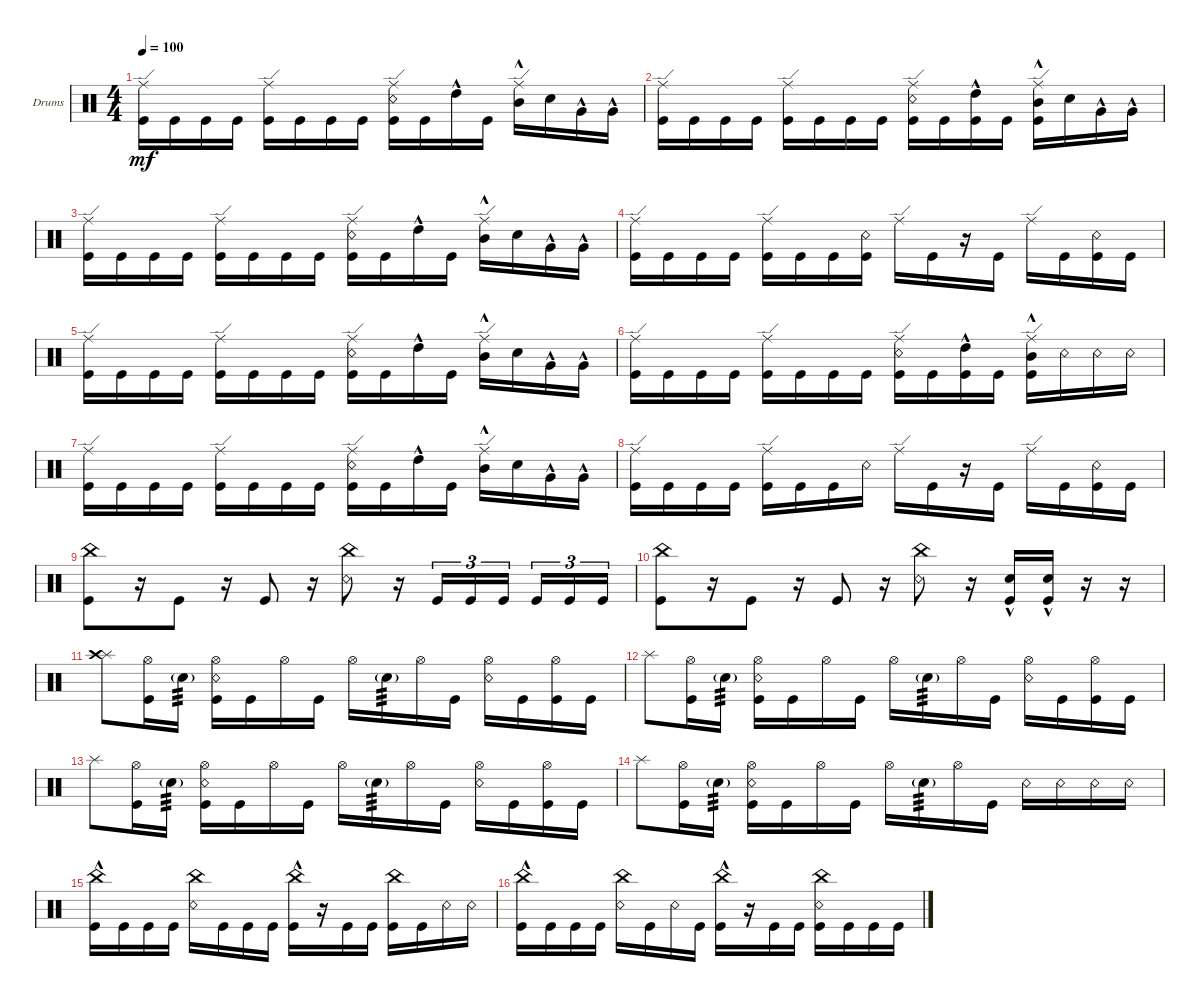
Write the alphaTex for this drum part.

\defaultSystemsLayout 4
\bracketExtendMode groupsimilarinstruments
\firstSystemTrackNameOrientation horizontal
\otherSystemsTrackNameOrientation horizontal
\track ("Drumkit" "Drums") {instrument percussion}
\staff {score}
\articulation defaults
\ts (4 4)
\tempo 100
\clef neutral
\ks c
("Ride (edge)" "Kick (hit)").16{dy mf} "Kick (hit)".16 "Kick (hit)".16 "Kick (hit)".16 ("Kick (hit)" "Ride (edge)").16 "Kick (hit)".16 "Kick (hit)".16 "Kick (hit)".16 ("Kick (hit)" "Ride (edge)" "Snare (rim shot)").16 "Kick (hit)".16 "High Tom (hit)"{hac}.16 "Kick (hit)".16 ("Ride (edge)" "Mid Tom (hit)"{hac}).16 "Snare (hit) 2".16 "Very Low Tom (hit)"{hac}.16 "Very Low Tom (hit)"{hac}.16 |
("Ride (edge)" "Kick (hit)").16 "Kick (hit)".16 "Kick (hit)".16 "Kick (hit)".16 ("Kick (hit)" "Ride (edge)").16 "Kick (hit)".16 "Kick (hit)".16 "Kick (hit)".16 ("Kick (hit)" "Ride (edge)" "Snare (rim shot)").16 "Kick (hit)".16 ("Kick (hit)" "High Tom (hit)"{hac}).16 "Kick (hit)".16 ("Kick (hit)" "Ride (edge)" "Mid Tom (hit)"{hac}).16 "Snare (hit) 2".16 "Very Low Tom (hit)"{hac}.16 "Very Low Tom (hit)"{hac}.16 |
("Ride (edge)" "Kick (hit)").16 "Kick (hit)".16 "Kick (hit)".16 "Kick (hit)".16 ("Kick (hit)" "Ride (edge)").16 "Kick (hit)".16 "Kick (hit)".16 "Kick (hit)".16 ("Kick (hit)" "Ride (edge)" "Snare (rim shot)").16 "Kick (hit)".16 "High Tom (hit)"{hac}.16 "Kick (hit)".16 ("Ride (edge)" "Mid Tom (hit)"{hac}).16 "Snare (hit) 2".16 "Very Low Tom (hit)"{hac}.16 "Very Low Tom (hit)"{hac}.16 |
("Ride (edge)" "Kick (hit)").16 "Kick (hit)".16 "Kick (hit)".16 "Kick (hit)".16 ("Kick (hit)" "Ride (edge)").16 "Kick (hit)".16 "Kick (hit)".16 ("Kick (hit)" "Snare (rim shot)").16 "Ride (edge)".16 "Kick (hit)".16 r.16 "Kick (hit)".16 "Ride (edge)".16 "Kick (hit)".16 ("Kick (hit)" "Snare (rim shot)").16 "Kick (hit)".16 |
("Ride (edge)" "Kick (hit)").16 "Kick (hit)".16 "Kick (hit)".16 "Kick (hit)".16 ("Kick (hit)" "Ride (edge)").16 "Kick (hit)".16 "Kick (hit)".16 "Kick (hit)".16 ("Kick (hit)" "Ride (edge)" "Snare (rim shot)").16 "Kick (hit)".16 "High Tom (hit)"{hac}.16 "Kick (hit)".16 ("Ride (edge)" "Mid Tom (hit)"{hac}).16 "Snare (hit) 2".16 "Very Low Tom (hit)"{hac}.16 "Very Low Tom (hit)"{hac}.16 |
("Ride (edge)" "Kick (hit)").16 "Kick (hit)".16 "Kick (hit)".16 "Kick (hit)".16 ("Kick (hit)" "Ride (edge)").16 "Kick (hit)".16 "Kick (hit)".16 "Kick (hit)".16 ("Kick (hit)" "Ride (edge)" "Snare (rim shot)").16 "Kick (hit)".16 ("Kick (hit)" "High Tom (hit)"{hac}).16 "Kick (hit)".16 ("Kick (hit)" "Ride (edge)" "Mid Tom (hit)"{hac}).16 "Snare (rim shot)".16 "Snare (rim shot)".16 "Snare (rim shot)".16 |
("Ride (edge)" "Kick (hit)").16 "Kick (hit)".16 "Kick (hit)".16 "Kick (hit)".16 ("Kick (hit)" "Ride (edge)").16 "Kick (hit)".16 "Kick (hit)".16 "Kick (hit)".16 ("Kick (hit)" "Ride (edge)" "Snare (rim shot)").16 "Kick (hit)".16 "High Tom (hit)"{hac}.16 "Kick (hit)".16 ("Ride (edge)" "Mid Tom (hit)"{hac}).16 "Snare (hit) 2".16 "Very Low Tom (hit)"{hac}.16 "Very Low Tom (hit)"{hac}.16 |
("Ride (edge)" "Kick (hit)").16 "Kick (hit)".16 "Kick (hit)".16 "Kick (hit)".16 ("Kick (hit)" "Ride (edge)").16 "Kick (hit)".16 "Kick (hit)".16 "Snare (rim shot)".16 "Ride (edge)".16 "Kick (hit)".16 r.16 "Kick (hit)".16 "Ride (edge)".16 "Kick (hit)".16 ("Kick (hit)" "Snare (rim shot)").16 "Kick (hit)".16 |
("Kick (hit)" "China (hit)").8 r.16 "Kick (hit)".8 r.16 "Kick (hit)".8 r.16 ("Snare (rim shot)" "China (hit)").8 r.16 "Kick (hit)".16{tu (3 2)} "Kick (hit)".16{tu (3 2)} "Kick (hit)".16{tu (3 2)} "Kick (hit)".16{tu (3 2)} "Kick (hit)".16{tu (3 2)} "Kick (hit)".16{tu (3 2)} |
("Kick (hit)" "China (hit)").8 r.16 "Kick (hit)".8 r.16 "Kick (hit)".8 r.16 ("Snare (rim shot)" "China (hit)").8 r.16 ("Kick (hit)"{hac} "Snare (hit) 2"{hac}).16 ("Kick (hit)"{hac} "Snare (hit) 2"{hac}).16 r.16 r.16 |
("Splash (hit)" "Crash high (hit)").8 ("Kick (hit)" "Hi-Hat (open)").16 "Snare (hit) 2"{g}.16{tp 3} ("Kick (hit)" "Snare (rim shot)" "Hi-Hat (open)").16 "Kick (hit)".16 "Hi-Hat (open)".16 "Kick (hit)".16 "Hi-Hat (open)".16 "Snare (hit) 2"{g}.16{tp 3} "Hi-Hat (open)".16 "Kick (hit)".16 ("Snare (rim shot)" "Hi-Hat (open)").16 "Kick (hit)".16 ("Kick (hit)" "Hi-Hat (open)").16 "Kick (hit)".16 |
"Splash (hit)".8 ("Kick (hit)" "Hi-Hat (open)").16 "Snare (hit) 2"{g}.16{tp 3} ("Kick (hit)" "Snare (rim shot)" "Hi-Hat (open)").16 "Kick (hit)".16 "Hi-Hat (open)".16 "Kick (hit)".16 "Hi-Hat (open)".16 "Snare (hit) 2"{g}.16{tp 3} "Hi-Hat (open)".16 "Kick (hit)".16 ("Snare (rim shot)" "Hi-Hat (open)").16 "Kick (hit)".16 ("Kick (hit)" "Hi-Hat (open)").16 "Kick (hit)".16 |
"Splash (hit)".8 ("Kick (hit)" "Hi-Hat (open)").16 "Snare (hit) 2"{g}.16{tp 3} ("Kick (hit)" "Snare (rim shot)" "Hi-Hat (open)").16 "Kick (hit)".16 "Hi-Hat (open)".16 "Kick (hit)".16 "Hi-Hat (open)".16 "Snare (hit) 2"{g}.16{tp 3} "Hi-Hat (open)".16 "Kick (hit)".16 ("Snare (rim shot)" "Hi-Hat (open)").16 "Kick (hit)".16 ("Kick (hit)" "Hi-Hat (open)").16 "Kick (hit)".16 |
"Splash (hit)".8 ("Kick (hit)" "Hi-Hat (open)").16 "Snare (hit) 2"{g}.16{tp 3} ("Kick (hit)" "Snare (rim shot)" "Hi-Hat (open)").16 "Kick (hit)".16 "Hi-Hat (open)".16 "Kick (hit)".16 "Hi-Hat (open)".16 "Snare (hit) 2"{g}.16{tp 3} "Hi-Hat (open)".16 "Kick (hit)".16 "Snare (rim shot)".16 "Snare (rim shot)".16 "Snare (rim shot)".16 "Snare (rim shot)".16 |
("Kick (hit)"{hac} "China (hit)").16 "Kick (hit)".16 "Kick (hit)".16 "Kick (hit)".16 ("China (hit)" "Snare (rim shot)").16 "Kick (hit)".16 "Kick (hit)".16 "Kick (hit)".16 ("Kick (hit)"{hac} "China (hit)").16 r.16 "Kick (hit)".16 "Kick (hit)".16 ("Kick (hit)" "China (hit)").16 "Kick (hit)".16 "Snare (rim shot)".16 "Snare (rim shot)".16 |
("Kick (hit)"{hac} "China (hit)").16 "Kick (hit)".16 "Kick (hit)".16 "Kick (hit)".16 ("China (hit)" "Snare (rim shot)").16 "Kick (hit)".16 "Snare (rim shot)".16 "Kick (hit)".16 ("Kick (hit)"{hac} "China (hit)").16 r.16 "Kick (hit)".16 "Kick (hit)".16 ("Kick (hit)" "China (hit)" "Snare (rim shot)").16 "Kick (hit)".16 "Kick (hit)".16 "Kick (hit)".16
